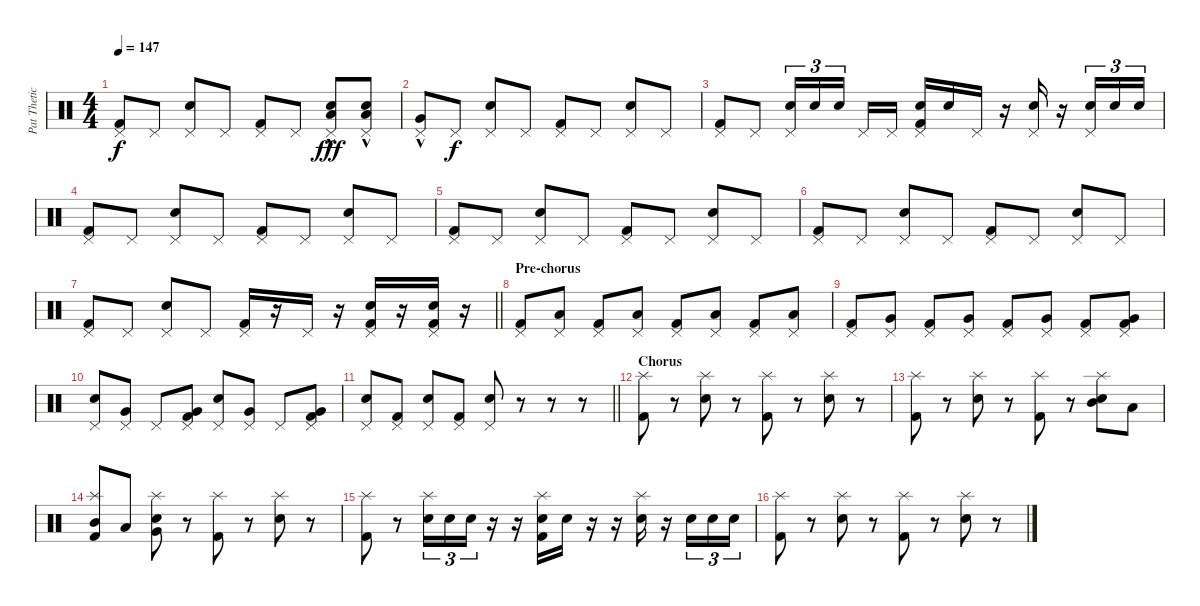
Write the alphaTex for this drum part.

\track ("Pat Thetic Drums" "Pat Thetic") {instrument percussion}
\staff {score}
\articulation defaults
\ts (4 4)
\tempo 147
\clef neutral
\ks c
("Pedal Hi-Hat (hit)" "Kick (hit) 2").8{dy f} "Pedal Hi-Hat (hit)".8 ("Pedal Hi-Hat (hit)" "Snare (hit) 2").8 "Pedal Hi-Hat (hit)".8 ("Pedal Hi-Hat (hit)" "Kick (hit) 2").8 "Pedal Hi-Hat (hit)".8 ("Pedal Hi-Hat (hit)" "Snare (hit) 2" "Low Floor Tom (hit)"{hac}).8{dy fff} ("Pedal Hi-Hat (hit)" "Snare (hit) 2" "Low Floor Tom (hit)"{hac}).8 |
("Pedal Hi-Hat (hit)" "Very Low Tom (hit)"{hac}).8 "Pedal Hi-Hat (hit)".8{dy f} ("Pedal Hi-Hat (hit)" "Snare (hit) 2").8 "Pedal Hi-Hat (hit)".8 ("Pedal Hi-Hat (hit)" "Kick (hit) 2").8 "Pedal Hi-Hat (hit)".8 ("Pedal Hi-Hat (hit)" "Snare (hit) 2").8 "Pedal Hi-Hat (hit)".8 |
("Pedal Hi-Hat (hit)" "Kick (hit) 2").8 "Pedal Hi-Hat (hit)".8 ("Pedal Hi-Hat (hit)" "Snare (hit) 2").16{tu (3 2)} "Snare (hit) 2".16{tu (3 2)} "Snare (hit) 2".16{tu (3 2) beam splitsecondary} "Pedal Hi-Hat (hit)".16 "Pedal Hi-Hat (hit)".16 ("Pedal Hi-Hat (hit)" "Kick (hit) 2" "Snare (hit) 2").16 "Snare (hit) 2".16 "Pedal Hi-Hat (hit)".16 r.16 ("Pedal Hi-Hat (hit)" "Snare (hit) 2").16 r.16 ("Pedal Hi-Hat (hit)" "Snare (hit) 2").16{tu (3 2)} "Snare (hit) 2".16{tu (3 2)} "Snare (hit) 2".16{tu (3 2)} |
("Pedal Hi-Hat (hit)" "Kick (hit) 2").8 "Pedal Hi-Hat (hit)".8 ("Pedal Hi-Hat (hit)" "Snare (hit) 2").8 "Pedal Hi-Hat (hit)".8 ("Pedal Hi-Hat (hit)" "Kick (hit) 2").8 "Pedal Hi-Hat (hit)".8 ("Pedal Hi-Hat (hit)" "Snare (hit) 2").8 "Pedal Hi-Hat (hit)".8 |
("Pedal Hi-Hat (hit)" "Kick (hit) 2").8 "Pedal Hi-Hat (hit)".8 ("Pedal Hi-Hat (hit)" "Snare (hit) 2").8 "Pedal Hi-Hat (hit)".8 ("Pedal Hi-Hat (hit)" "Kick (hit) 2").8 "Pedal Hi-Hat (hit)".8 ("Pedal Hi-Hat (hit)" "Snare (hit) 2").8 "Pedal Hi-Hat (hit)".8 |
("Pedal Hi-Hat (hit)" "Kick (hit) 2").8 "Pedal Hi-Hat (hit)".8 ("Pedal Hi-Hat (hit)" "Snare (hit) 2").8 "Pedal Hi-Hat (hit)".8 ("Pedal Hi-Hat (hit)" "Kick (hit) 2").8 "Pedal Hi-Hat (hit)".8 ("Pedal Hi-Hat (hit)" "Snare (hit) 2").8 "Pedal Hi-Hat (hit)".8 |
\barLineRight lightlight
("Pedal Hi-Hat (hit)" "Kick (hit) 2").8 "Pedal Hi-Hat (hit)".8 ("Pedal Hi-Hat (hit)" "Snare (hit) 2").8 "Pedal Hi-Hat (hit)".8 ("Pedal Hi-Hat (hit)" "Kick (hit) 2").16 r.16 "Pedal Hi-Hat (hit)".16 r.16 ("Pedal Hi-Hat (hit)" "Kick (hit) 2" "Snare (hit) 2").16 r.16 ("Pedal Hi-Hat (hit)" "Kick (hit) 2" "Snare (hit) 2").16 r.16 |
\section ("" "Pre-chorus")
("Pedal Hi-Hat (hit)" "Kick (hit) 2").8 ("Pedal Hi-Hat (hit)" "Low Tom (hit)").8 ("Pedal Hi-Hat (hit)" "Kick (hit) 2").8 ("Pedal Hi-Hat (hit)" "Low Tom (hit)").8 ("Pedal Hi-Hat (hit)" "Kick (hit) 2").8 ("Pedal Hi-Hat (hit)" "Low Tom (hit)").8 ("Pedal Hi-Hat (hit)" "Kick (hit) 2").8 ("Pedal Hi-Hat (hit)" "Low Tom (hit)").8 |
("Pedal Hi-Hat (hit)" "Kick (hit) 2").8 ("Pedal Hi-Hat (hit)" "Very Low Tom (hit)").8 ("Pedal Hi-Hat (hit)" "Kick (hit) 2").8 ("Pedal Hi-Hat (hit)" "Very Low Tom (hit)").8 ("Pedal Hi-Hat (hit)" "Kick (hit) 2").8 ("Pedal Hi-Hat (hit)" "Very Low Tom (hit)").8 ("Pedal Hi-Hat (hit)" "Kick (hit) 2").8 ("Pedal Hi-Hat (hit)" "Kick (hit) 2" "Very Low Tom (hit)").8 |
("Pedal Hi-Hat (hit)" "Snare (hit) 2").8 ("Pedal Hi-Hat (hit)" "Very Low Tom (hit)").8 "Pedal Hi-Hat (hit)".8 ("Pedal Hi-Hat (hit)" "Kick (hit) 2" "Very Low Tom (hit)").8 ("Pedal Hi-Hat (hit)" "Snare (hit) 2").8 ("Pedal Hi-Hat (hit)" "Very Low Tom (hit)").8 "Pedal Hi-Hat (hit)".8 ("Pedal Hi-Hat (hit)" "Kick (hit) 2" "Very Low Tom (hit)").8 |
\barLineRight lightlight
("Pedal Hi-Hat (hit)" "Snare (hit) 2").8 ("Pedal Hi-Hat (hit)" "Kick (hit) 2").8 ("Pedal Hi-Hat (hit)" "Snare (hit) 2").8 ("Pedal Hi-Hat (hit)" "Kick (hit) 2").8 ("Pedal Hi-Hat (hit)" "Snare (hit) 2").8 r.8 r.8 r.8 |
\section ("" "Chorus")
("Splash (hit)" "Kick (hit) 2").8 r.8 ("Splash (hit)" "Snare (hit) 2").8 r.8 ("Splash (hit)" "Kick (hit) 2").8 r.8 ("Splash (hit)" "Snare (hit) 2").8 r.8 |
("Splash (hit)" "Kick (hit) 2").8 r.8 ("Splash (hit)" "Snare (hit) 2").8 r.8 ("Splash (hit)" "Kick (hit) 2").8 r.8 ("Splash (hit)" "Snare (hit) 2" "Mid Tom (hit)").8 "Low Floor Tom (hit)".8 |
("Splash (hit)" "Kick (hit) 2" "Mid Tom (hit)").8 "Low Floor Tom (hit)".8 ("Splash (hit)" "Snare (hit) 2" "Very Low Tom (hit)").8 r.8 ("Splash (hit)" "Kick (hit) 2").8 r.8 ("Splash (hit)" "Snare (hit) 2").8 r.8 |
("Splash (hit)" "Kick (hit) 2").8 r.8 ("Splash (hit)" "Snare (hit) 2").16{tu (3 2)} "Snare (hit) 2".16{tu (3 2)} "Snare (hit) 2".16{tu (3 2)} r.16 r.16 ("Splash (hit)" "Kick (hit) 2" "Snare (hit) 2").16 "Snare (hit) 2".16 r.16 r.16 ("Splash (hit)" "Snare (hit) 2").16 r.16 "Snare (hit) 2".16{tu (3 2)} "Snare (hit) 2".16{tu (3 2)} "Snare (hit) 2".16{tu (3 2)} |
("Splash (hit)" "Kick (hit) 2").8 r.8 ("Splash (hit)" "Snare (hit) 2").8 r.8 ("Splash (hit)" "Kick (hit) 2").8 r.8 ("Splash (hit)" "Snare (hit) 2").8 r.8
